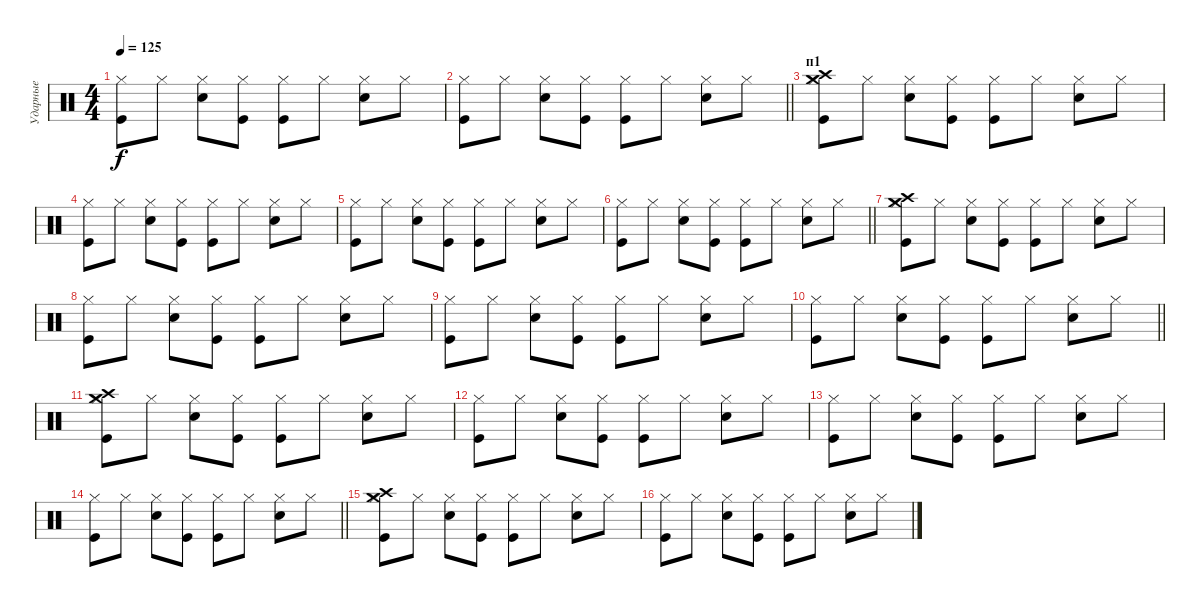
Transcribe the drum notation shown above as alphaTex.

\track ("Ударные" "Ударные") {instrument percussion}
\staff {score}
\articulation defaults
\ts (4 4)
\tempo 125
\clef neutral
\ks c
("Kick (hit)" "Hi-Hat (closed)").8{dy f} "Hi-Hat (closed)".8 ("Snare (hit) 2" "Hi-Hat (closed)").8 ("Kick (hit)" "Hi-Hat (closed)").8 ("Kick (hit)" "Hi-Hat (closed)").8 "Hi-Hat (closed)".8 ("Snare (hit) 2" "Hi-Hat (closed)").8 "Hi-Hat (closed)".8 |
\barLineRight lightlight
("Kick (hit)" "Hi-Hat (closed)").8 "Hi-Hat (closed)".8 ("Snare (hit) 2" "Hi-Hat (closed)").8 ("Kick (hit)" "Hi-Hat (closed)").8 ("Kick (hit)" "Hi-Hat (closed)").8 "Hi-Hat (closed)".8 ("Snare (hit) 2" "Hi-Hat (closed)").8 "Hi-Hat (closed)".8 |
\section ("" "п1")
("Kick (hit)" "Crash high (hit)" "Crash medium (hit)" "Hi-Hat (closed)").8 "Hi-Hat (closed)".8 ("Snare (hit) 2" "Hi-Hat (closed)").8 ("Kick (hit)" "Hi-Hat (closed)").8 ("Kick (hit)" "Hi-Hat (closed)").8 "Hi-Hat (closed)".8 ("Snare (hit) 2" "Hi-Hat (closed)").8 "Hi-Hat (closed)".8 |
("Kick (hit)" "Hi-Hat (closed)").8 "Hi-Hat (closed)".8 ("Snare (hit) 2" "Hi-Hat (closed)").8 ("Kick (hit)" "Hi-Hat (closed)").8 ("Kick (hit)" "Hi-Hat (closed)").8 "Hi-Hat (closed)".8 ("Snare (hit) 2" "Hi-Hat (closed)").8 "Hi-Hat (closed)".8 |
("Kick (hit)" "Hi-Hat (closed)").8 "Hi-Hat (closed)".8 ("Snare (hit) 2" "Hi-Hat (closed)").8 ("Kick (hit)" "Hi-Hat (closed)").8 ("Kick (hit)" "Hi-Hat (closed)").8 "Hi-Hat (closed)".8 ("Snare (hit) 2" "Hi-Hat (closed)").8 "Hi-Hat (closed)".8 |
\barLineRight lightlight
("Kick (hit)" "Hi-Hat (closed)").8 "Hi-Hat (closed)".8 ("Snare (hit) 2" "Hi-Hat (closed)").8 ("Kick (hit)" "Hi-Hat (closed)").8 ("Kick (hit)" "Hi-Hat (closed)").8 "Hi-Hat (closed)".8 ("Snare (hit) 2" "Hi-Hat (closed)").8 "Hi-Hat (closed)".8 |
("Kick (hit)" "Crash high (hit)" "Crash medium (hit)" "Hi-Hat (closed)").8 "Hi-Hat (closed)".8 ("Snare (hit) 2" "Hi-Hat (closed)").8 ("Kick (hit)" "Hi-Hat (closed)").8 ("Kick (hit)" "Hi-Hat (closed)").8 "Hi-Hat (closed)".8 ("Snare (hit) 2" "Hi-Hat (closed)").8 "Hi-Hat (closed)".8 |
("Kick (hit)" "Hi-Hat (closed)").8 "Hi-Hat (closed)".8 ("Snare (hit) 2" "Hi-Hat (closed)").8 ("Kick (hit)" "Hi-Hat (closed)").8 ("Kick (hit)" "Hi-Hat (closed)").8 "Hi-Hat (closed)".8 ("Snare (hit) 2" "Hi-Hat (closed)").8 "Hi-Hat (closed)".8 |
("Kick (hit)" "Hi-Hat (closed)").8 "Hi-Hat (closed)".8 ("Snare (hit) 2" "Hi-Hat (closed)").8 ("Kick (hit)" "Hi-Hat (closed)").8 ("Kick (hit)" "Hi-Hat (closed)").8 "Hi-Hat (closed)".8 ("Snare (hit) 2" "Hi-Hat (closed)").8 "Hi-Hat (closed)".8 |
\barLineRight lightlight
("Kick (hit)" "Hi-Hat (closed)").8 "Hi-Hat (closed)".8 ("Snare (hit) 2" "Hi-Hat (closed)").8 ("Kick (hit)" "Hi-Hat (closed)").8 ("Kick (hit)" "Hi-Hat (closed)").8 "Hi-Hat (closed)".8 ("Snare (hit) 2" "Hi-Hat (closed)").8 "Hi-Hat (closed)".8 |
("Kick (hit)" "Crash high (hit)" "Crash medium (hit)" "Hi-Hat (closed)").8 "Hi-Hat (closed)".8 ("Snare (hit) 2" "Hi-Hat (closed)").8 ("Kick (hit)" "Hi-Hat (closed)").8 ("Kick (hit)" "Hi-Hat (closed)").8 "Hi-Hat (closed)".8 ("Snare (hit) 2" "Hi-Hat (closed)").8 "Hi-Hat (closed)".8 |
("Kick (hit)" "Hi-Hat (closed)").8 "Hi-Hat (closed)".8 ("Snare (hit) 2" "Hi-Hat (closed)").8 ("Kick (hit)" "Hi-Hat (closed)").8 ("Kick (hit)" "Hi-Hat (closed)").8 "Hi-Hat (closed)".8 ("Snare (hit) 2" "Hi-Hat (closed)").8 "Hi-Hat (closed)".8 |
("Kick (hit)" "Hi-Hat (closed)").8 "Hi-Hat (closed)".8 ("Snare (hit) 2" "Hi-Hat (closed)").8 ("Kick (hit)" "Hi-Hat (closed)").8 ("Kick (hit)" "Hi-Hat (closed)").8 "Hi-Hat (closed)".8 ("Snare (hit) 2" "Hi-Hat (closed)").8 "Hi-Hat (closed)".8 |
\barLineRight lightlight
("Kick (hit)" "Hi-Hat (closed)").8 "Hi-Hat (closed)".8 ("Snare (hit) 2" "Hi-Hat (closed)").8 ("Kick (hit)" "Hi-Hat (closed)").8 ("Kick (hit)" "Hi-Hat (closed)").8 "Hi-Hat (closed)".8 ("Snare (hit) 2" "Hi-Hat (closed)").8 "Hi-Hat (closed)".8 |
("Kick (hit)" "Crash high (hit)" "Crash medium (hit)" "Hi-Hat (closed)").8 "Hi-Hat (closed)".8 ("Snare (hit) 2" "Hi-Hat (closed)").8 ("Kick (hit)" "Hi-Hat (closed)").8 ("Kick (hit)" "Hi-Hat (closed)").8 "Hi-Hat (closed)".8 ("Snare (hit) 2" "Hi-Hat (closed)").8 "Hi-Hat (closed)".8 |
("Kick (hit)" "Hi-Hat (closed)").8 "Hi-Hat (closed)".8 ("Snare (hit) 2" "Hi-Hat (closed)").8 ("Kick (hit)" "Hi-Hat (closed)").8 ("Kick (hit)" "Hi-Hat (closed)").8 "Hi-Hat (closed)".8 ("Snare (hit) 2" "Hi-Hat (closed)").8 "Hi-Hat (closed)".8
